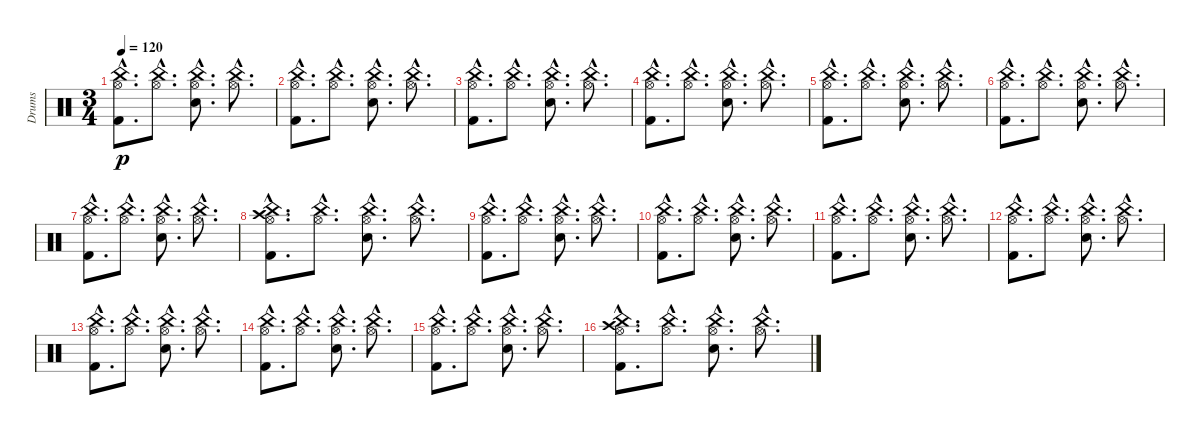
\track ("Drums" "Drums") {instrument percussion}
\staff {score}
\articulation defaults
\ts (3 4)
\tempo 120
\clef neutral
\ks c
("China (hit)"{hac} "Hi-Hat (open)"{hac} "Kick (hit) 2"{hac}).8{d dy p} ("China (hit)"{hac} "Hi-Hat (open)"{hac}).8{d} ("China (hit)"{hac} "Hi-Hat (open)"{hac} "Electric Snare (hit)"{hac}).8{d} ("China (hit)"{hac} "Hi-Hat (open)"{hac}).8{d} |
("China (hit)"{hac} "Hi-Hat (open)"{hac} "Kick (hit) 2"{hac}).8{d} ("China (hit)"{hac} "Hi-Hat (open)"{hac}).8{d} ("China (hit)"{hac} "Hi-Hat (open)"{hac} "Electric Snare (hit)"{hac}).8{d} ("China (hit)"{hac} "Hi-Hat (open)"{hac}).8{d} |
("China (hit)"{hac} "Hi-Hat (open)"{hac} "Kick (hit) 2"{hac}).8{d} ("China (hit)"{hac} "Hi-Hat (open)"{hac}).8{d} ("China (hit)"{hac} "Hi-Hat (open)"{hac} "Electric Snare (hit)"{hac}).8{d} ("China (hit)"{hac} "Hi-Hat (open)"{hac}).8{d} |
("China (hit)"{hac} "Hi-Hat (open)"{hac} "Kick (hit) 2"{hac}).8{d} ("China (hit)"{hac} "Hi-Hat (open)"{hac}).8{d} ("China (hit)"{hac} "Hi-Hat (open)"{hac} "Electric Snare (hit)"{hac}).8{d} ("China (hit)"{hac} "Hi-Hat (open)"{hac}).8{d} |
("China (hit)"{hac} "Hi-Hat (open)"{hac} "Kick (hit) 2"{hac}).8{d} ("China (hit)"{hac} "Hi-Hat (open)"{hac}).8{d} ("China (hit)"{hac} "Hi-Hat (open)"{hac} "Electric Snare (hit)"{hac}).8{d} ("China (hit)"{hac} "Hi-Hat (open)"{hac}).8{d} |
("China (hit)"{hac} "Hi-Hat (open)"{hac} "Kick (hit) 2"{hac}).8{d} ("China (hit)"{hac} "Hi-Hat (open)"{hac}).8{d} ("China (hit)"{hac} "Hi-Hat (open)"{hac} "Electric Snare (hit)"{hac}).8{d} ("China (hit)"{hac} "Hi-Hat (open)"{hac}).8{d} |
("China (hit)"{hac} "Hi-Hat (open)"{hac} "Kick (hit) 2"{hac}).8{d} ("China (hit)"{hac} "Hi-Hat (open)"{hac}).8{d} ("China (hit)"{hac} "Hi-Hat (open)"{hac} "Electric Snare (hit)"{hac}).8{d} ("China (hit)"{hac} "Hi-Hat (open)"{hac}).8{d} |
("Crash high (hit)"{hac} "China (hit)"{hac} "Hi-Hat (open)"{hac} "Kick (hit) 2"{hac}).8{d} ("China (hit)"{hac} "Hi-Hat (open)"{hac}).8{d} ("China (hit)"{hac} "Hi-Hat (open)"{hac} "Electric Snare (hit)"{hac}).8{d} ("China (hit)"{hac} "Hi-Hat (open)"{hac}).8{d} |
("China (hit)"{hac} "Hi-Hat (open)"{hac} "Kick (hit) 2"{hac}).8{d} ("China (hit)"{hac} "Hi-Hat (open)"{hac}).8{d} ("China (hit)"{hac} "Hi-Hat (open)"{hac} "Electric Snare (hit)"{hac}).8{d} ("China (hit)"{hac} "Hi-Hat (open)"{hac}).8{d} |
("China (hit)"{hac} "Hi-Hat (open)"{hac} "Kick (hit) 2"{hac}).8{d} ("China (hit)"{hac} "Hi-Hat (open)"{hac}).8{d} ("China (hit)"{hac} "Hi-Hat (open)"{hac} "Electric Snare (hit)"{hac}).8{d} ("China (hit)"{hac} "Hi-Hat (open)"{hac}).8{d} |
("China (hit)"{hac} "Hi-Hat (open)"{hac} "Kick (hit) 2"{hac}).8{d} ("China (hit)"{hac} "Hi-Hat (open)"{hac}).8{d} ("China (hit)"{hac} "Hi-Hat (open)"{hac} "Electric Snare (hit)"{hac}).8{d} ("China (hit)"{hac} "Hi-Hat (open)"{hac}).8{d} |
("China (hit)"{hac} "Hi-Hat (open)"{hac} "Kick (hit) 2"{hac}).8{d} ("China (hit)"{hac} "Hi-Hat (open)"{hac}).8{d} ("China (hit)"{hac} "Hi-Hat (open)"{hac} "Electric Snare (hit)"{hac}).8{d} ("China (hit)"{hac} "Hi-Hat (open)"{hac}).8{d} |
("China (hit)"{hac} "Hi-Hat (open)"{hac} "Kick (hit) 2"{hac}).8{d} ("China (hit)"{hac} "Hi-Hat (open)"{hac}).8{d} ("China (hit)"{hac} "Hi-Hat (open)"{hac} "Electric Snare (hit)"{hac}).8{d} ("China (hit)"{hac} "Hi-Hat (open)"{hac}).8{d} |
("China (hit)"{hac} "Hi-Hat (open)"{hac} "Kick (hit) 2"{hac}).8{d} ("China (hit)"{hac} "Hi-Hat (open)"{hac}).8{d} ("China (hit)"{hac} "Hi-Hat (open)"{hac} "Electric Snare (hit)"{hac}).8{d} ("China (hit)"{hac} "Hi-Hat (open)"{hac}).8{d} |
("China (hit)"{hac} "Hi-Hat (open)"{hac} "Kick (hit) 2"{hac}).8{d} ("China (hit)"{hac} "Hi-Hat (open)"{hac}).8{d} ("China (hit)"{hac} "Hi-Hat (open)"{hac} "Electric Snare (hit)"{hac}).8{d} ("China (hit)"{hac} "Hi-Hat (open)"{hac}).8{d} |
("Crash high (hit)"{hac} "China (hit)"{hac} "Hi-Hat (open)"{hac} "Kick (hit) 2"{hac}).8{d} ("China (hit)"{hac} "Hi-Hat (open)"{hac}).8{d} ("China (hit)"{hac} "Hi-Hat (open)"{hac} "Electric Snare (hit)"{hac}).8{d} ("China (hit)"{hac} "Hi-Hat (open)"{hac}).8{d}
